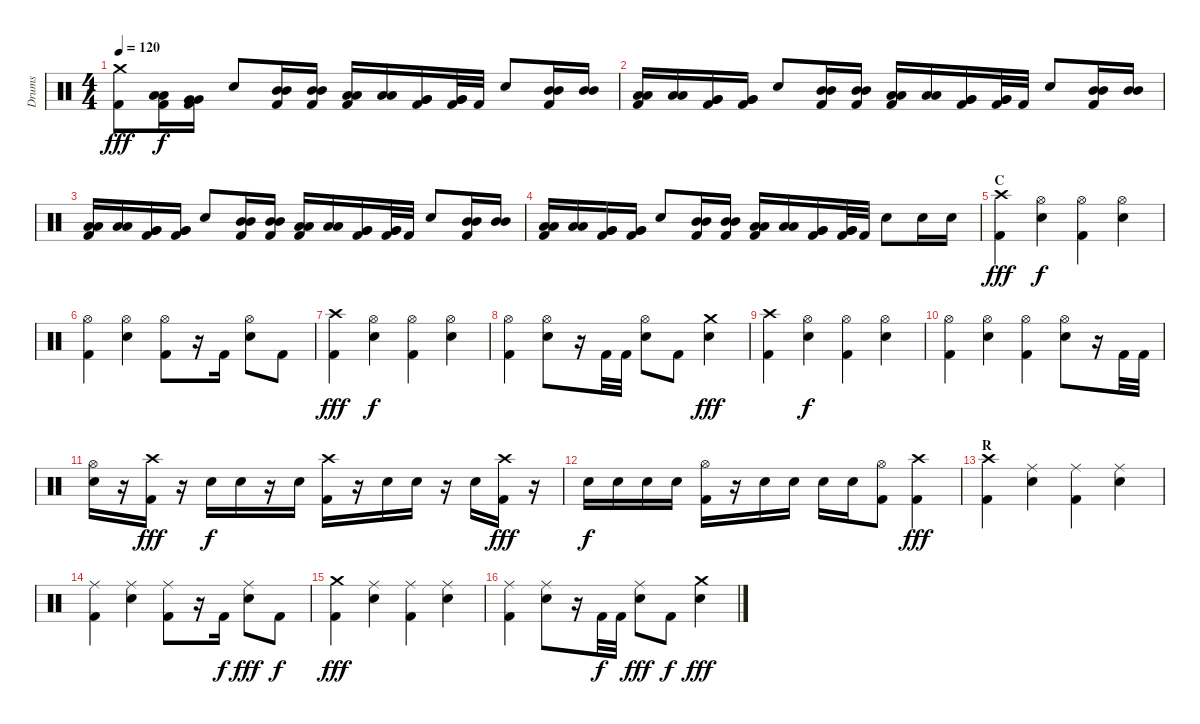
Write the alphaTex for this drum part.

\track ("Drums" "Drums") {instrument percussion}
\staff {score}
\articulation defaults
\ts (4 4)
\tempo 120
\clef neutral
\ks c
("Kick (hit) 2" "Crash medium (hit)").8{dy fff} ("Kick (hit) 2" "Low Tom (hit)" "Low Tom (hit)").16{dy f} ("Kick (hit) 2" "Very Low Tom (hit)" "Very Low Tom (hit)").16 "Electric Snare (hit)".8 ("Kick (hit) 2" "Mid Tom (hit)" "Mid Tom (hit)").16 ("Kick (hit) 2" "Mid Tom (hit)" "Mid Tom (hit)").16 ("Kick (hit) 2" "Low Tom (hit)" "Low Tom (hit)").16 ("Low Tom (hit)" "Low Tom (hit)").16 ("Kick (hit) 2" "Very Low Tom (hit)" "Very Low Tom (hit)").16 ("Kick (hit) 2" "Very Low Tom (hit)" "Very Low Tom (hit)").32 "Kick (hit) 2".32 "Electric Snare (hit)".8 ("Kick (hit) 2" "Mid Tom (hit)" "Mid Tom (hit)").16 ("Mid Tom (hit)" "Mid Tom (hit)").16 |
("Kick (hit) 2" "Low Tom (hit)" "Low Tom (hit)").16 ("Low Tom (hit)" "Low Tom (hit)").16 ("Kick (hit) 2" "Very Low Tom (hit)" "Very Low Tom (hit)").16 ("Kick (hit) 2" "Very Low Tom (hit)" "Very Low Tom (hit)").16 "Electric Snare (hit)".8 ("Kick (hit) 2" "Mid Tom (hit)" "Mid Tom (hit)").16 ("Kick (hit) 2" "Mid Tom (hit)" "Mid Tom (hit)").16 ("Kick (hit) 2" "Low Tom (hit)" "Low Tom (hit)").16 ("Low Tom (hit)" "Low Tom (hit)").16 ("Kick (hit) 2" "Very Low Tom (hit)" "Very Low Tom (hit)").16 ("Kick (hit) 2" "Very Low Tom (hit)" "Very Low Tom (hit)").32 "Kick (hit) 2".32 "Electric Snare (hit)".8 ("Kick (hit) 2" "Mid Tom (hit)" "Mid Tom (hit)").16 ("Mid Tom (hit)" "Mid Tom (hit)").16 |
("Kick (hit) 2" "Low Tom (hit)" "Low Tom (hit)").16 ("Low Tom (hit)" "Low Tom (hit)").16 ("Kick (hit) 2" "Very Low Tom (hit)" "Very Low Tom (hit)").16 ("Kick (hit) 2" "Very Low Tom (hit)" "Very Low Tom (hit)").16 "Electric Snare (hit)".8 ("Kick (hit) 2" "Mid Tom (hit)" "Mid Tom (hit)").16 ("Kick (hit) 2" "Mid Tom (hit)" "Mid Tom (hit)").16 ("Kick (hit) 2" "Low Tom (hit)" "Low Tom (hit)").16 ("Low Tom (hit)" "Low Tom (hit)").16 ("Kick (hit) 2" "Very Low Tom (hit)" "Very Low Tom (hit)").16 ("Kick (hit) 2" "Very Low Tom (hit)" "Very Low Tom (hit)").32 "Kick (hit) 2".32 "Electric Snare (hit)".8 ("Kick (hit) 2" "Mid Tom (hit)" "Mid Tom (hit)").16 ("Mid Tom (hit)" "Mid Tom (hit)").16 |
("Kick (hit) 2" "Low Tom (hit)" "Low Tom (hit)").16 ("Low Tom (hit)" "Low Tom (hit)").16 ("Kick (hit) 2" "Very Low Tom (hit)" "Very Low Tom (hit)").16 ("Kick (hit) 2" "Very Low Tom (hit)" "Very Low Tom (hit)").16 "Electric Snare (hit)".8 ("Kick (hit) 2" "Mid Tom (hit)" "Mid Tom (hit)").16 ("Kick (hit) 2" "Mid Tom (hit)" "Mid Tom (hit)").16 ("Kick (hit) 2" "Low Tom (hit)" "Low Tom (hit)").16 ("Low Tom (hit)" "Low Tom (hit)").16 ("Kick (hit) 2" "Very Low Tom (hit)" "Very Low Tom (hit)").16 ("Kick (hit) 2" "Very Low Tom (hit)" "Very Low Tom (hit)").32 "Kick (hit) 2".32 "Electric Snare (hit)".8 "Electric Snare (hit)".16 "Electric Snare (hit)".16 |
\section ("" "C")
("Kick (hit) 2" "Crash high (hit)").4{dy fff} ("Electric Snare (hit)" "Hi-Hat (open)").4{dy f} ("Kick (hit) 2" "Hi-Hat (open)").4 ("Electric Snare (hit)" "Hi-Hat (open)").4 |
("Kick (hit) 2" "Hi-Hat (open)").4 ("Electric Snare (hit)" "Hi-Hat (open)").4 ("Kick (hit) 2" "Hi-Hat (open)").8 r.16 "Kick (hit) 2".16 ("Electric Snare (hit)" "Hi-Hat (open)").8 "Kick (hit) 2".8 |
("Kick (hit) 2" "Crash high (hit)").4{dy fff} ("Electric Snare (hit)" "Hi-Hat (open)").4{dy f} ("Kick (hit) 2" "Hi-Hat (open)").4 ("Electric Snare (hit)" "Hi-Hat (open)").4 |
("Kick (hit) 2" "Hi-Hat (open)").4 ("Electric Snare (hit)" "Hi-Hat (open)").8 r.16 "Kick (hit) 2".32 "Kick (hit) 2".32 ("Electric Snare (hit)" "Hi-Hat (open)").8 "Kick (hit) 2".8 ("Electric Snare (hit)" "Crash medium (hit)").4{dy fff} |
("Kick (hit) 2" "Crash high (hit)").4 ("Electric Snare (hit)" "Hi-Hat (open)").4{dy f} ("Kick (hit) 2" "Hi-Hat (open)").4 ("Electric Snare (hit)" "Hi-Hat (open)").4 |
("Kick (hit) 2" "Hi-Hat (open)").4 ("Electric Snare (hit)" "Hi-Hat (open)").4 ("Kick (hit) 2" "Hi-Hat (open)").4 ("Electric Snare (hit)" "Hi-Hat (open)").8 r.16 "Kick (hit) 2".32 "Kick (hit) 2".32 |
("Electric Snare (hit)" "Hi-Hat (open)").16 r.16 ("Kick (hit) 2" "Crash high (hit)").16{dy fff} r.16 "Electric Snare (hit)".16{dy f} "Electric Snare (hit)".16 r.16 "Electric Snare (hit)".16 ("Kick (hit) 2" "Crash high (hit)").16 r.16 "Electric Snare (hit)".16 "Electric Snare (hit)".16 r.16 "Electric Snare (hit)".16 ("Kick (hit) 2" "Crash high (hit)").16{dy fff} r.16 |
"Electric Snare (hit)".16{dy f} "Electric Snare (hit)".16 "Electric Snare (hit)".16 "Electric Snare (hit)".16 ("Kick (hit) 2" "Hi-Hat (open)").16 r.16 "Electric Snare (hit)".16 "Electric Snare (hit)".16 "Electric Snare (hit)".16 "Electric Snare (hit)".16 ("Kick (hit) 2" "Hi-Hat (open)").8 ("Kick (hit) 2" "Crash high (hit)").4{dy fff} |
\section ("" "R")
("Kick (hit) 2" "Crash high (hit)").4 ("Electric Snare (hit)" "Ride (middle)").4 ("Kick (hit) 2" "Ride (middle)").4 ("Electric Snare (hit)" "Ride (middle)").4 |
("Kick (hit) 2" "Ride (middle)").4 ("Electric Snare (hit)" "Ride (middle)").4 ("Kick (hit) 2" "Ride (middle)").8 r.16 "Kick (hit) 2".16{dy f} ("Electric Snare (hit)" "Ride (middle)").8{dy fff} "Kick (hit) 2".8{dy f} |
("Kick (hit) 2" "Crash medium (hit)").4{dy fff} ("Electric Snare (hit)" "Ride (middle)").4 ("Kick (hit) 2" "Ride (middle)").4 ("Electric Snare (hit)" "Ride (middle)").4 |
("Kick (hit) 2" "Ride (middle)").4 ("Electric Snare (hit)" "Ride (middle)").8 r.16 "Kick (hit) 2".32{dy f} "Kick (hit) 2".32 ("Electric Snare (hit)" "Ride (middle)").8{dy fff} "Kick (hit) 2".8{dy f} ("Electric Snare (hit)" "Crash medium (hit)").4{dy fff}
